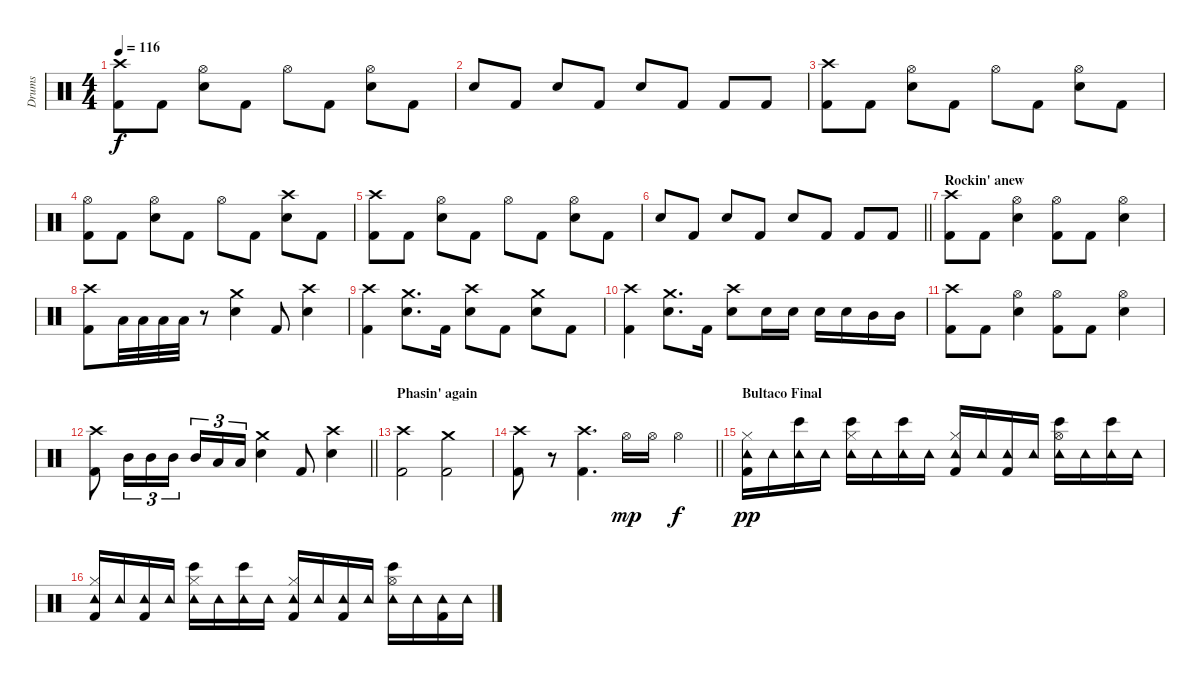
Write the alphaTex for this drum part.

\track ("Drums" "Drums") {instrument percussion}
\staff {score}
\articulation defaults
\ts (4 4)
\tempo 116
\clef neutral
\ks c
("Crash high (hit)" "Kick (hit) 2").8{dy f} "Kick (hit) 2".8 ("Hi-Hat (open)" "Electric Snare (hit)").8 "Kick (hit) 2".8 "Hi-Hat (open)".8 "Kick (hit) 2".8 ("Hi-Hat (open)" "Electric Snare (hit)").8 "Kick (hit) 2".8 |
"Electric Snare (hit)".8 "Kick (hit) 2".8 "Electric Snare (hit)".8 "Kick (hit) 2".8 "Electric Snare (hit)".8 "Kick (hit) 2".8 "Kick (hit) 2".8 "Kick (hit) 2".8 |
("Crash high (hit)" "Kick (hit) 2").8 "Kick (hit) 2".8 ("Hi-Hat (open)" "Electric Snare (hit)").8 "Kick (hit) 2".8 "Hi-Hat (open)".8 "Kick (hit) 2".8 ("Hi-Hat (open)" "Electric Snare (hit)").8 "Kick (hit) 2".8 |
("Hi-Hat (open)" "Kick (hit) 2").8 "Kick (hit) 2".8 ("Hi-Hat (open)" "Electric Snare (hit)").8 "Kick (hit) 2".8 "Hi-Hat (open)".8 "Kick (hit) 2".8 ("Crash high (hit)" "Electric Snare (hit)").8 "Kick (hit) 2".8 |
("Crash high (hit)" "Kick (hit) 2").8 "Kick (hit) 2".8 ("Hi-Hat (open)" "Electric Snare (hit)").8 "Kick (hit) 2".8 "Hi-Hat (open)".8 "Kick (hit) 2".8 ("Hi-Hat (open)" "Electric Snare (hit)").8 "Kick (hit) 2".8 |
\barLineRight lightlight "Electric Snare (hit)".8 "Kick (hit) 2".8 "Electric Snare (hit)".8 "Kick (hit) 2".8 "Electric Snare (hit)".8 "Kick (hit) 2".8 "Kick (hit) 2".8 "Kick (hit) 2".8
|
\section ("" "Rockin' anew")
("Crash high (hit)" "Kick (hit) 2").8 "Kick (hit) 2".8 ("Hi-Hat (open)" "Electric Snare (hit)").4 ("Hi-Hat (open)" "Kick (hit) 2").8 "Kick (hit) 2".8 ("Hi-Hat (open)" "Electric Snare (hit)").4 |
("Crash high (hit)" "Kick (hit) 2").8 "Low Tom (hit)".32 "Low Tom (hit)".32 "Low Tom (hit)".32 "Low Tom (hit)".32 r.8 ("Crash medium (hit)" "Electric Snare (hit)").4 "Kick (hit) 2".8 ("Crash high (hit)" "Electric Snare (hit)").4 |
("Crash high (hit)" "Kick (hit) 2").4 ("Crash medium (hit)" "Electric Snare (hit)").8{d} "Kick (hit) 2".16 ("Crash high (hit)" "Electric Snare (hit)").8 "Kick (hit) 2".8 ("Crash medium (hit)" "Electric Snare (hit)").8 "Kick (hit) 2".8 |
("Crash high (hit)" "Kick (hit) 2").4 ("Crash medium (hit)" "Electric Snare (hit)").8{d} "Kick (hit) 2".16 ("Crash high (hit)" "Electric Snare (hit)").8 "Electric Snare (hit)".16 "Electric Snare (hit)".16 "Electric Snare (hit)".16 "Electric Snare (hit)".16 "Mid Tom (hit)".16 "Mid Tom (hit)".16 |
("Crash high (hit)" "Kick (hit) 2").8 "Kick (hit) 2".8 ("Hi-Hat (open)" "Electric Snare (hit)").4 ("Hi-Hat (open)" "Kick (hit) 2").8 "Kick (hit) 2".8 ("Hi-Hat (open)" "Electric Snare (hit)").4 |
\barLineRight lightlight
("Crash high (hit)" "Kick (hit) 2").8 "Mid Tom (hit)".16{tu (3 2)} "Mid Tom (hit)".16{tu (3 2)} "Mid Tom (hit)".16{tu (3 2)} "Mid Tom (hit)".16{tu (3 2)} "Low Tom (hit)".16{tu (3 2)} "Low Tom (hit)".16{tu (3 2)} ("Crash medium (hit)" "Electric Snare (hit)").4 "Kick (hit) 2".8 ("Crash high (hit)" "Electric Snare (hit)").4 |
\section ("" "Phasin' again")
("Kick (hit) 2" "Crash high (hit)").2 ("Kick (hit) 2" "Crash medium (hit)").2 |
\barLineRight lightlight
("Kick (hit) 2" "Crash high (hit)").8 r.8 ("Kick (hit) 2" "Crash high (hit)").4{d} "Hi-Hat (open)".16{dy mp} "Hi-Hat (open)".16 "Hi-Hat (open)".4{dy f} |
\section ("" "Bultaco Final")
("Hi-Hat (closed)" "Kick (hit) 2" "Tambourine (hit)").16{dy pp volume 10} "Tambourine (hit)".16 ("Bongo High (hit)" "Tambourine (hit)").16 "Tambourine (hit)".16 ("Hi-Hat (closed)" "Bongo High (hit)" "Tambourine (hit)").16 "Tambourine (hit)".16 ("Bongo High (hit)" "Tambourine (hit)").16 "Tambourine (hit)".16 ("Hi-Hat (closed)" "Kick (hit) 2" "Tambourine (hit)").16 "Tambourine (hit)".16 ("Kick (hit) 2" "Tambourine (hit)").16 "Tambourine (hit)".16 ("Hi-Hat (open)" "Bongo High (hit)" "Tambourine (hit)").16 "Tambourine (hit)".16 ("Bongo High (hit)" "Tambourine (hit)").16 "Tambourine (hit)".16 |
("Hi-Hat (closed)" "Kick (hit) 2" "Tambourine (hit)").16 "Tambourine (hit)".16 ("Kick (hit) 2" "Tambourine (hit)").16 "Tambourine (hit)".16 ("Hi-Hat (closed)" "Bongo High (hit)" "Tambourine (hit)").16 "Tambourine (hit)".16 ("Bongo High (hit)" "Tambourine (hit)").16 "Tambourine (hit)".16 ("Hi-Hat (closed)" "Kick (hit) 2" "Tambourine (hit)").16 "Tambourine (hit)".16 ("Kick (hit) 2" "Tambourine (hit)").16 "Tambourine (hit)".16 ("Hi-Hat (open)" "Bongo High (hit)" "Tambourine (hit)").16 "Tambourine (hit)".16 ("Kick (hit) 2" "Tambourine (hit)").16 "Tambourine (hit)".16
